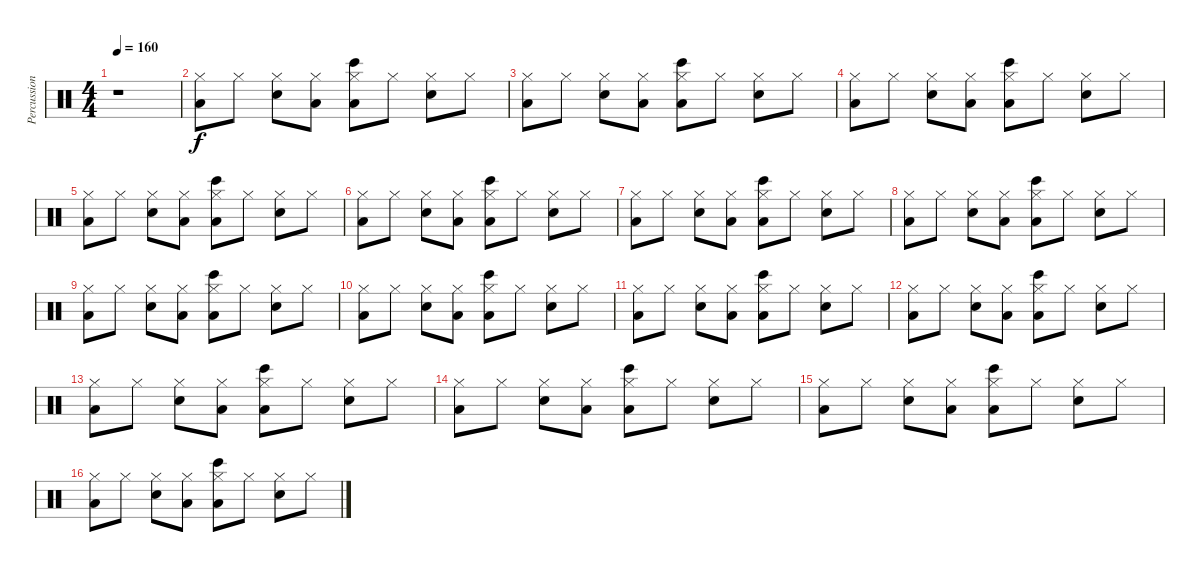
\track ("Percussions" "Percussion") {instrument percussion}
\staff {score}
\articulation defaults
\ts (4 4)
\tempo 160
\clef neutral
\ks c
r.1{dy f} |
("Low Floor Tom (hit)" "Hi-Hat (closed)").8 "Hi-Hat (closed)".8 ("Electric Snare (hit)" "Hi-Hat (closed)").8 ("Low Floor Tom (hit)" "Hi-Hat (closed)").8 ("Low Floor Tom (hit)" "Bongo High (hit)" "Hi-Hat (closed)").8 "Hi-Hat (closed)".8 ("Electric Snare (hit)" "Hi-Hat (closed)").8 "Hi-Hat (closed)".8 |
("Low Floor Tom (hit)" "Hi-Hat (closed)").8 "Hi-Hat (closed)".8 ("Electric Snare (hit)" "Hi-Hat (closed)").8 ("Low Floor Tom (hit)" "Hi-Hat (closed)").8 ("Low Floor Tom (hit)" "Bongo High (hit)" "Hi-Hat (closed)").8 "Hi-Hat (closed)".8 ("Electric Snare (hit)" "Hi-Hat (closed)").8 "Hi-Hat (closed)".8 |
("Low Floor Tom (hit)" "Hi-Hat (closed)").8 "Hi-Hat (closed)".8 ("Electric Snare (hit)" "Hi-Hat (closed)").8 ("Low Floor Tom (hit)" "Hi-Hat (closed)").8 ("Low Floor Tom (hit)" "Bongo High (hit)" "Hi-Hat (closed)").8 "Hi-Hat (closed)".8 ("Electric Snare (hit)" "Hi-Hat (closed)").8 "Hi-Hat (closed)".8 |
("Low Floor Tom (hit)" "Hi-Hat (closed)").8 "Hi-Hat (closed)".8 ("Electric Snare (hit)" "Hi-Hat (closed)").8 ("Low Floor Tom (hit)" "Hi-Hat (closed)").8 ("Low Floor Tom (hit)" "Bongo High (hit)" "Hi-Hat (closed)").8 "Hi-Hat (closed)".8 ("Electric Snare (hit)" "Hi-Hat (closed)").8 "Hi-Hat (closed)".8 |
("Low Floor Tom (hit)" "Hi-Hat (closed)").8 "Hi-Hat (closed)".8 ("Electric Snare (hit)" "Hi-Hat (closed)").8 ("Low Floor Tom (hit)" "Hi-Hat (closed)").8 ("Low Floor Tom (hit)" "Bongo High (hit)" "Hi-Hat (closed)").8 "Hi-Hat (closed)".8 ("Electric Snare (hit)" "Hi-Hat (closed)").8 "Hi-Hat (closed)".8 |
("Low Floor Tom (hit)" "Hi-Hat (closed)").8 "Hi-Hat (closed)".8 ("Electric Snare (hit)" "Hi-Hat (closed)").8 ("Low Floor Tom (hit)" "Hi-Hat (closed)").8 ("Low Floor Tom (hit)" "Bongo High (hit)" "Hi-Hat (closed)").8 "Hi-Hat (closed)".8 ("Electric Snare (hit)" "Hi-Hat (closed)").8 "Hi-Hat (closed)".8 |
("Low Floor Tom (hit)" "Hi-Hat (closed)").8 "Hi-Hat (closed)".8 ("Electric Snare (hit)" "Hi-Hat (closed)").8 ("Low Floor Tom (hit)" "Hi-Hat (closed)").8 ("Low Floor Tom (hit)" "Bongo High (hit)" "Hi-Hat (closed)").8 "Hi-Hat (closed)".8 ("Electric Snare (hit)" "Hi-Hat (closed)").8 "Hi-Hat (closed)".8 |
("Low Floor Tom (hit)" "Hi-Hat (closed)").8 "Hi-Hat (closed)".8 ("Electric Snare (hit)" "Hi-Hat (closed)").8 ("Low Floor Tom (hit)" "Hi-Hat (closed)").8 ("Low Floor Tom (hit)" "Bongo High (hit)" "Hi-Hat (closed)").8 "Hi-Hat (closed)".8 ("Electric Snare (hit)" "Hi-Hat (closed)").8 "Hi-Hat (closed)".8 |
("Low Floor Tom (hit)" "Hi-Hat (closed)").8 "Hi-Hat (closed)".8 ("Electric Snare (hit)" "Hi-Hat (closed)").8 ("Low Floor Tom (hit)" "Hi-Hat (closed)").8 ("Low Floor Tom (hit)" "Bongo High (hit)" "Hi-Hat (closed)").8 "Hi-Hat (closed)".8 ("Electric Snare (hit)" "Hi-Hat (closed)").8 "Hi-Hat (closed)".8 |
("Low Floor Tom (hit)" "Hi-Hat (closed)").8 "Hi-Hat (closed)".8 ("Electric Snare (hit)" "Hi-Hat (closed)").8 ("Low Floor Tom (hit)" "Hi-Hat (closed)").8 ("Low Floor Tom (hit)" "Bongo High (hit)" "Hi-Hat (closed)").8 "Hi-Hat (closed)".8 ("Electric Snare (hit)" "Hi-Hat (closed)").8 "Hi-Hat (closed)".8 |
("Low Floor Tom (hit)" "Hi-Hat (closed)").8 "Hi-Hat (closed)".8 ("Electric Snare (hit)" "Hi-Hat (closed)").8 ("Low Floor Tom (hit)" "Hi-Hat (closed)").8 ("Low Floor Tom (hit)" "Bongo High (hit)" "Hi-Hat (closed)").8 "Hi-Hat (closed)".8 ("Electric Snare (hit)" "Hi-Hat (closed)").8 "Hi-Hat (closed)".8 |
("Low Floor Tom (hit)" "Hi-Hat (closed)").8 "Hi-Hat (closed)".8 ("Electric Snare (hit)" "Hi-Hat (closed)").8 ("Low Floor Tom (hit)" "Hi-Hat (closed)").8 ("Low Floor Tom (hit)" "Bongo High (hit)" "Hi-Hat (closed)").8 "Hi-Hat (closed)".8 ("Electric Snare (hit)" "Hi-Hat (closed)").8 "Hi-Hat (closed)".8 |
("Low Floor Tom (hit)" "Hi-Hat (closed)").8 "Hi-Hat (closed)".8 ("Electric Snare (hit)" "Hi-Hat (closed)").8 ("Low Floor Tom (hit)" "Hi-Hat (closed)").8 ("Low Floor Tom (hit)" "Bongo High (hit)" "Hi-Hat (closed)").8 "Hi-Hat (closed)".8 ("Electric Snare (hit)" "Hi-Hat (closed)").8 "Hi-Hat (closed)".8 |
("Low Floor Tom (hit)" "Hi-Hat (closed)").8 "Hi-Hat (closed)".8 ("Electric Snare (hit)" "Hi-Hat (closed)").8 ("Low Floor Tom (hit)" "Hi-Hat (closed)").8 ("Low Floor Tom (hit)" "Bongo High (hit)" "Hi-Hat (closed)").8 "Hi-Hat (closed)".8 ("Electric Snare (hit)" "Hi-Hat (closed)").8 "Hi-Hat (closed)".8 |
("Low Floor Tom (hit)" "Hi-Hat (closed)").8 "Hi-Hat (closed)".8 ("Electric Snare (hit)" "Hi-Hat (closed)").8 ("Low Floor Tom (hit)" "Hi-Hat (closed)").8 ("Low Floor Tom (hit)" "Bongo High (hit)" "Hi-Hat (closed)").8 "Hi-Hat (closed)".8 ("Electric Snare (hit)" "Hi-Hat (closed)").8 "Hi-Hat (closed)".8
